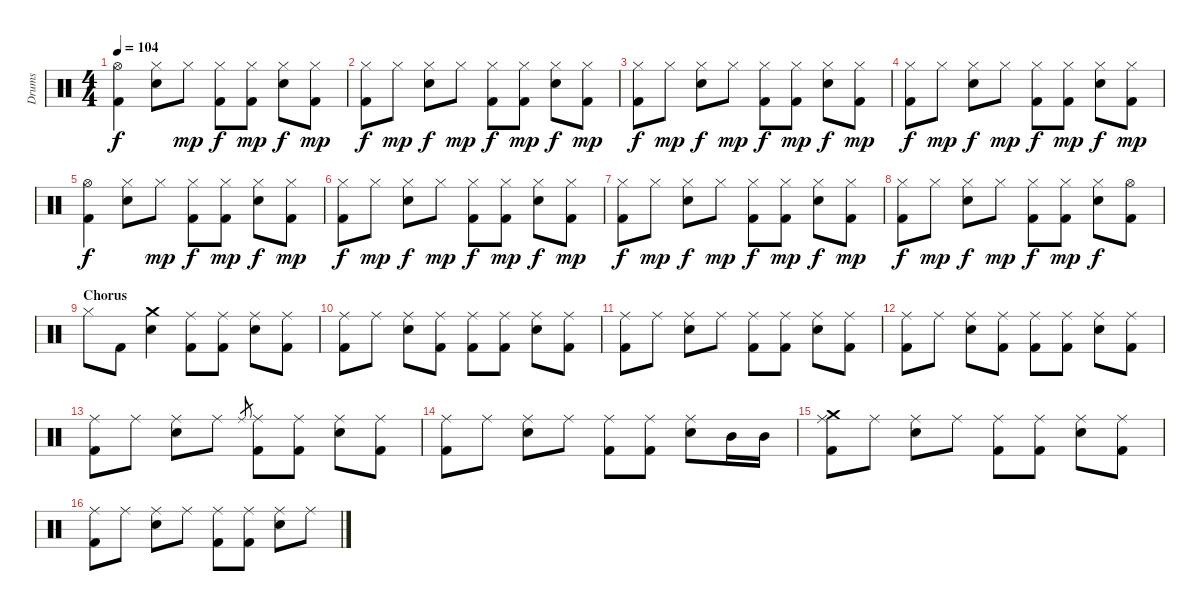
\track ("Drums" "Drums") {instrument percussion}
\staff {score}
\articulation defaults
\ts (4 4)
\tempo 104
\clef neutral
\ks c
("Hi-Hat (open)" "Kick (hit) 2").4{dy f} ("Hi-Hat (closed)" "Electric Snare (hit)").8 "Hi-Hat (closed)".8{dy mp} ("Hi-Hat (closed)" "Kick (hit) 2").8{dy f} ("Hi-Hat (closed)" "Kick (hit) 2").8{dy mp} ("Hi-Hat (closed)" "Electric Snare (hit)").8{dy f} ("Hi-Hat (closed)" "Kick (hit) 2").8{dy mp} |
("Hi-Hat (closed)" "Kick (hit) 2").8{dy f} "Hi-Hat (closed)".8{dy mp} ("Hi-Hat (closed)" "Electric Snare (hit)").8{dy f} "Hi-Hat (closed)".8{dy mp} ("Hi-Hat (closed)" "Kick (hit) 2").8{dy f} ("Hi-Hat (closed)" "Kick (hit) 2").8{dy mp} ("Hi-Hat (closed)" "Electric Snare (hit)").8{dy f} ("Hi-Hat (closed)" "Kick (hit) 2").8{dy mp} |
("Hi-Hat (closed)" "Kick (hit) 2").8{dy f} "Hi-Hat (closed)".8{dy mp} ("Hi-Hat (closed)" "Electric Snare (hit)").8{dy f} "Hi-Hat (closed)".8{dy mp} ("Hi-Hat (closed)" "Kick (hit) 2").8{dy f} ("Hi-Hat (closed)" "Kick (hit) 2").8{dy mp} ("Hi-Hat (closed)" "Electric Snare (hit)").8{dy f} ("Hi-Hat (closed)" "Kick (hit) 2").8{dy mp} |
("Hi-Hat (closed)" "Kick (hit) 2").8{dy f} "Hi-Hat (closed)".8{dy mp} ("Hi-Hat (closed)" "Electric Snare (hit)").8{dy f} "Hi-Hat (closed)".8{dy mp} ("Hi-Hat (closed)" "Kick (hit) 2").8{dy f} ("Hi-Hat (closed)" "Kick (hit) 2").8{dy mp} ("Hi-Hat (closed)" "Electric Snare (hit)").8{dy f} ("Hi-Hat (closed)" "Kick (hit) 2").8{dy mp} |
("Hi-Hat (open)" "Kick (hit) 2").4{dy f} ("Hi-Hat (closed)" "Electric Snare (hit)").8 "Hi-Hat (closed)".8{dy mp} ("Hi-Hat (closed)" "Kick (hit) 2").8{dy f} ("Hi-Hat (closed)" "Kick (hit) 2").8{dy mp} ("Hi-Hat (closed)" "Electric Snare (hit)").8{dy f} ("Hi-Hat (closed)" "Kick (hit) 2").8{dy mp} |
("Hi-Hat (closed)" "Kick (hit) 2").8{dy f} "Hi-Hat (closed)".8{dy mp} ("Hi-Hat (closed)" "Electric Snare (hit)").8{dy f} "Hi-Hat (closed)".8{dy mp} ("Hi-Hat (closed)" "Kick (hit) 2").8{dy f} ("Hi-Hat (closed)" "Kick (hit) 2").8{dy mp} ("Hi-Hat (closed)" "Electric Snare (hit)").8{dy f} ("Hi-Hat (closed)" "Kick (hit) 2").8{dy mp} |
("Hi-Hat (closed)" "Kick (hit) 2").8{dy f} "Hi-Hat (closed)".8{dy mp} ("Hi-Hat (closed)" "Electric Snare (hit)").8{dy f} "Hi-Hat (closed)".8{dy mp} ("Hi-Hat (closed)" "Kick (hit) 2").8{dy f} ("Hi-Hat (closed)" "Kick (hit) 2").8{dy mp} ("Hi-Hat (closed)" "Electric Snare (hit)").8{dy f} ("Hi-Hat (closed)" "Kick (hit) 2").8{dy mp} |
("Hi-Hat (closed)" "Kick (hit) 2").8{dy f} "Hi-Hat (closed)".8{dy mp} ("Hi-Hat (closed)" "Electric Snare (hit)").8{dy f} "Hi-Hat (closed)".8{dy mp} ("Hi-Hat (closed)" "Kick (hit) 2").8{dy f} ("Hi-Hat (closed)" "Kick (hit) 2").8{dy mp} ("Hi-Hat (closed)" "Electric Snare (hit)").8{dy f} ("Hi-Hat (open)" "Kick (hit) 2").8 |
\section ("" "Chorus")
"Hi-Hat (closed)".8 "Kick (hit) 2".8 ("Crash medium (hit)" "Electric Snare (hit)").4 ("Ride (middle)" "Kick (hit) 2").8 ("Ride (middle)" "Kick (hit) 2").8 ("Ride (middle)" "Electric Snare (hit)").8 ("Ride (middle)" "Kick (hit) 2").8 |
("Ride (middle)" "Kick (hit) 2").8 "Ride (middle)".8 ("Ride (middle)" "Electric Snare (hit)").8 ("Ride (middle)" "Kick (hit) 2").8 ("Ride (middle)" "Kick (hit) 2").8 ("Ride (middle)" "Kick (hit) 2").8 ("Ride (middle)" "Electric Snare (hit)").8 ("Ride (middle)" "Kick (hit) 2").8 |
("Ride (middle)" "Kick (hit) 2").8 "Ride (middle)".8 ("Ride (middle)" "Electric Snare (hit)").8 "Ride (middle)".8 ("Ride (middle)" "Kick (hit) 2").8 ("Ride (middle)" "Kick (hit) 2").8 ("Ride (middle)" "Electric Snare (hit)").8 ("Ride (middle)" "Kick (hit) 2").8 |
("Ride (middle)" "Kick (hit) 2").8 "Ride (middle)".8 ("Ride (middle)" "Electric Snare (hit)").8 ("Ride (middle)" "Kick (hit) 2").8 ("Ride (middle)" "Kick (hit) 2").8 ("Ride (middle)" "Kick (hit) 2").8 ("Ride (middle)" "Electric Snare (hit)").8 ("Ride (middle)" "Kick (hit) 2").8 |
("Ride (middle)" "Kick (hit) 2").8 "Ride (middle)".8 ("Ride (middle)" "Electric Snare (hit)").8 "Ride (middle)".8 "Ride (middle)".8{gr} ("Ride (middle)" "Kick (hit) 2").8 ("Ride (middle)" "Kick (hit) 2").8 ("Ride (middle)" "Electric Snare (hit)").8 ("Ride (middle)" "Kick (hit) 2").8 |
("Ride (middle)" "Kick (hit) 2").8 "Ride (middle)".8 ("Ride (middle)" "Electric Snare (hit)").8 "Ride (middle)".8 ("Ride (middle)" "Kick (hit) 2").8 ("Ride (middle)" "Kick (hit) 2").8 ("Ride (middle)" "Electric Snare (hit)").8 "Mid Tom (hit)".16 "Mid Tom (hit)".16 |
("Crash medium (hit)" "Ride (middle)" "Kick (hit) 2").8 "Ride (middle)".8 ("Ride (middle)" "Electric Snare (hit)").8 "Ride (middle)".8 ("Ride (middle)" "Kick (hit) 2").8 ("Ride (middle)" "Kick (hit) 2").8 ("Ride (middle)" "Electric Snare (hit)").8 ("Ride (middle)" "Kick (hit) 2").8 |
("Ride (middle)" "Kick (hit) 2").8 "Ride (middle)".8 ("Ride (middle)" "Electric Snare (hit)").8 "Ride (middle)".8 ("Ride (middle)" "Kick (hit) 2").8 ("Ride (middle)" "Kick (hit) 2").8 ("Ride (middle)" "Electric Snare (hit)").8 "Ride (middle)".8
